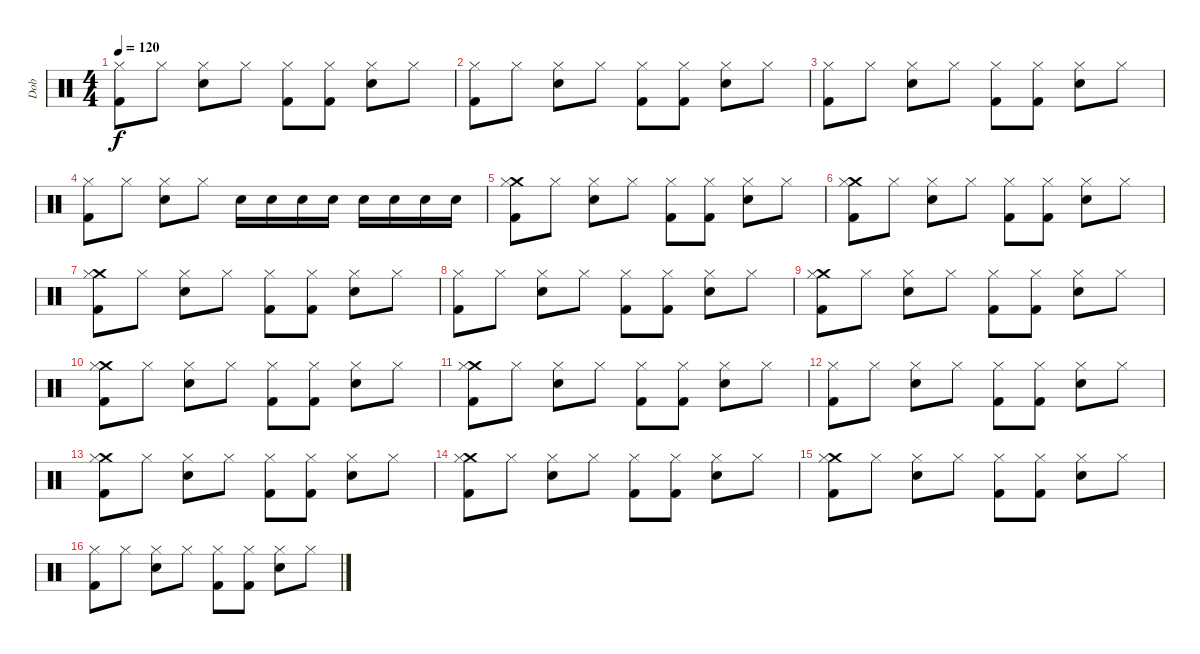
\track ("Dob" "Dob") {instrument percussion}
\staff {score}
\articulation defaults
\ts (4 4)
\tempo 120
\clef neutral
\ks c
("Hi-Hat (closed)" "Kick (hit) 2").8{dy f} "Hi-Hat (closed)".8 ("Hi-Hat (closed)" "Snare (hit) 2").8 "Hi-Hat (closed)".8 ("Hi-Hat (closed)" "Kick (hit) 2").8 ("Hi-Hat (closed)" "Kick (hit) 2").8 ("Hi-Hat (closed)" "Snare (hit) 2").8 "Hi-Hat (closed)".8 |
("Hi-Hat (closed)" "Kick (hit) 2").8 "Hi-Hat (closed)".8 ("Hi-Hat (closed)" "Snare (hit) 2").8 "Hi-Hat (closed)".8 ("Hi-Hat (closed)" "Kick (hit) 2").8 ("Hi-Hat (closed)" "Kick (hit) 2").8 ("Hi-Hat (closed)" "Snare (hit) 2").8 "Hi-Hat (closed)".8 |
("Hi-Hat (closed)" "Kick (hit) 2").8 "Hi-Hat (closed)".8 ("Hi-Hat (closed)" "Snare (hit) 2").8 "Hi-Hat (closed)".8 ("Hi-Hat (closed)" "Kick (hit) 2").8 ("Hi-Hat (closed)" "Kick (hit) 2").8 ("Hi-Hat (closed)" "Snare (hit) 2").8 "Hi-Hat (closed)".8 |
("Hi-Hat (closed)" "Kick (hit) 2").8 "Hi-Hat (closed)".8 ("Hi-Hat (closed)" "Snare (hit) 2").8 "Hi-Hat (closed)".8 "Snare (hit) 2".16 "Snare (hit) 2".16 "Snare (hit) 2".16 "Snare (hit) 2".16 "Snare (hit) 2".16 "Snare (hit) 2".16 "Snare (hit) 2".16 "Snare (hit) 2".16 |
("Crash medium (hit)" "Hi-Hat (closed)" "Kick (hit) 2").8 "Hi-Hat (closed)".8 ("Hi-Hat (closed)" "Snare (hit) 2").8 "Hi-Hat (closed)".8 ("Hi-Hat (closed)" "Kick (hit) 2").8 ("Hi-Hat (closed)" "Kick (hit) 2").8 ("Hi-Hat (closed)" "Snare (hit) 2").8 "Hi-Hat (closed)".8 |
("Crash medium (hit)" "Hi-Hat (closed)" "Kick (hit) 2").8 "Hi-Hat (closed)".8 ("Hi-Hat (closed)" "Snare (hit) 2").8 "Hi-Hat (closed)".8 ("Hi-Hat (closed)" "Kick (hit) 2").8 ("Hi-Hat (closed)" "Kick (hit) 2").8 ("Hi-Hat (closed)" "Snare (hit) 2").8 "Hi-Hat (closed)".8 |
("Crash medium (hit)" "Hi-Hat (closed)" "Kick (hit) 2").8 "Hi-Hat (closed)".8 ("Hi-Hat (closed)" "Snare (hit) 2").8 "Hi-Hat (closed)".8 ("Hi-Hat (closed)" "Kick (hit) 2").8 ("Hi-Hat (closed)" "Kick (hit) 2").8 ("Hi-Hat (closed)" "Snare (hit) 2").8 "Hi-Hat (closed)".8 |
("Hi-Hat (closed)" "Kick (hit) 2").8 "Hi-Hat (closed)".8 ("Hi-Hat (closed)" "Snare (hit) 2").8 "Hi-Hat (closed)".8 ("Hi-Hat (closed)" "Kick (hit) 2").8 ("Hi-Hat (closed)" "Kick (hit) 2").8 ("Hi-Hat (closed)" "Snare (hit) 2").8 "Hi-Hat (closed)".8 |
("Crash medium (hit)" "Hi-Hat (closed)" "Kick (hit) 2").8 "Hi-Hat (closed)".8 ("Hi-Hat (closed)" "Snare (hit) 2").8 "Hi-Hat (closed)".8 ("Hi-Hat (closed)" "Kick (hit) 2").8 ("Hi-Hat (closed)" "Kick (hit) 2").8 ("Hi-Hat (closed)" "Snare (hit) 2").8 "Hi-Hat (closed)".8 |
("Crash medium (hit)" "Hi-Hat (closed)" "Kick (hit) 2").8 "Hi-Hat (closed)".8 ("Hi-Hat (closed)" "Snare (hit) 2").8 "Hi-Hat (closed)".8 ("Hi-Hat (closed)" "Kick (hit) 2").8 ("Hi-Hat (closed)" "Kick (hit) 2").8 ("Hi-Hat (closed)" "Snare (hit) 2").8 "Hi-Hat (closed)".8 |
("Crash medium (hit)" "Hi-Hat (closed)" "Kick (hit) 2").8 "Hi-Hat (closed)".8 ("Hi-Hat (closed)" "Snare (hit) 2").8 "Hi-Hat (closed)".8 ("Hi-Hat (closed)" "Kick (hit) 2").8 ("Hi-Hat (closed)" "Kick (hit) 2").8 ("Hi-Hat (closed)" "Snare (hit) 2").8 "Hi-Hat (closed)".8 |
("Hi-Hat (closed)" "Kick (hit) 2").8 "Hi-Hat (closed)".8 ("Hi-Hat (closed)" "Snare (hit) 2").8 "Hi-Hat (closed)".8 ("Hi-Hat (closed)" "Kick (hit) 2").8 ("Hi-Hat (closed)" "Kick (hit) 2").8 ("Hi-Hat (closed)" "Snare (hit) 2").8 "Hi-Hat (closed)".8 |
("Crash medium (hit)" "Hi-Hat (closed)" "Kick (hit) 2").8 "Hi-Hat (closed)".8 ("Hi-Hat (closed)" "Snare (hit) 2").8 "Hi-Hat (closed)".8 ("Hi-Hat (closed)" "Kick (hit) 2").8 ("Hi-Hat (closed)" "Kick (hit) 2").8 ("Hi-Hat (closed)" "Snare (hit) 2").8 "Hi-Hat (closed)".8 |
("Crash medium (hit)" "Hi-Hat (closed)" "Kick (hit) 2").8 "Hi-Hat (closed)".8 ("Hi-Hat (closed)" "Snare (hit) 2").8 "Hi-Hat (closed)".8 ("Hi-Hat (closed)" "Kick (hit) 2").8 ("Hi-Hat (closed)" "Kick (hit) 2").8 ("Hi-Hat (closed)" "Snare (hit) 2").8 "Hi-Hat (closed)".8 |
("Crash medium (hit)" "Hi-Hat (closed)" "Kick (hit) 2").8 "Hi-Hat (closed)".8 ("Hi-Hat (closed)" "Snare (hit) 2").8 "Hi-Hat (closed)".8 ("Hi-Hat (closed)" "Kick (hit) 2").8 ("Hi-Hat (closed)" "Kick (hit) 2").8 ("Hi-Hat (closed)" "Snare (hit) 2").8 "Hi-Hat (closed)".8 |
("Hi-Hat (closed)" "Kick (hit) 2").8 "Hi-Hat (closed)".8 ("Hi-Hat (closed)" "Snare (hit) 2").8 "Hi-Hat (closed)".8 ("Hi-Hat (closed)" "Kick (hit) 2").8 ("Hi-Hat (closed)" "Kick (hit) 2").8 ("Hi-Hat (closed)" "Snare (hit) 2").8 "Hi-Hat (closed)".8
